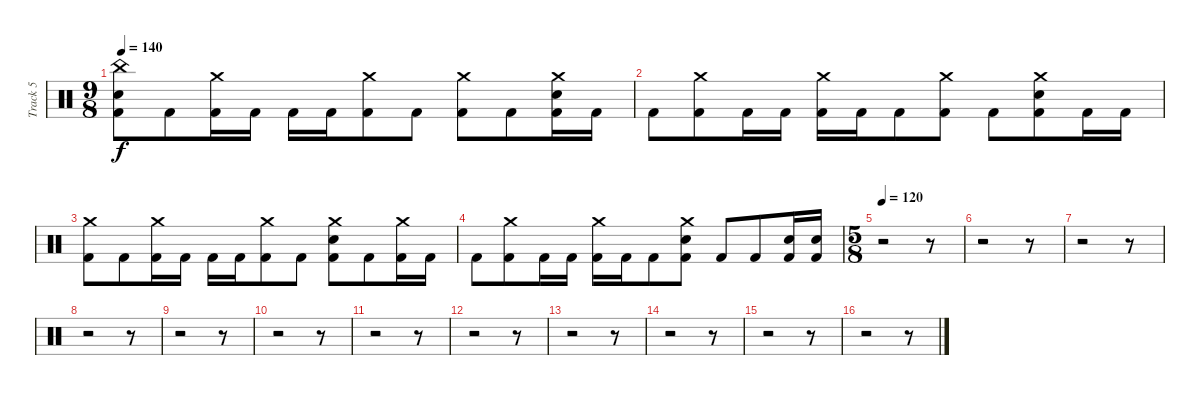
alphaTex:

\track ("Track 5" "Track 5") {instrument percussion}
\staff {score}
\articulation defaults
\ts (9 8)
\tempo 140
\clef neutral
\ks c
("China (hit)" "Electric Snare (hit)" "Kick (hit) 2").8{dy f} "Kick (hit) 2".8 ("Crash medium (hit)" "Kick (hit) 2").16 "Kick (hit) 2".16 "Kick (hit) 2".16 "Kick (hit) 2".16 ("Crash medium (hit)" "Kick (hit) 2").8 "Kick (hit) 2".8 ("Crash medium (hit)" "Kick (hit) 2").8 "Kick (hit) 2".8 ("Crash medium (hit)" "Electric Snare (hit)" "Kick (hit) 2").16 "Kick (hit) 2".16 |
"Kick (hit) 2".8 ("Crash medium (hit)" "Kick (hit) 2").8 "Kick (hit) 2".16 "Kick (hit) 2".16 ("Crash medium (hit)" "Kick (hit) 2").16 "Kick (hit) 2".16 "Kick (hit) 2".8 ("Crash medium (hit)" "Kick (hit) 2").8 "Kick (hit) 2".8 ("Crash medium (hit)" "Electric Snare (hit)" "Kick (hit) 2").8 "Kick (hit) 2".16 "Kick (hit) 2".16 |
("Crash medium (hit)" "Kick (hit) 2").8 "Kick (hit) 2".8 ("Crash medium (hit)" "Kick (hit) 2").16 "Kick (hit) 2".16 "Kick (hit) 2".16 "Kick (hit) 2".16 ("Crash medium (hit)" "Kick (hit) 2").8 "Kick (hit) 2".8 ("Crash medium (hit)" "Electric Snare (hit)" "Kick (hit) 2").8 "Kick (hit) 2".8 ("Crash medium (hit)" "Kick (hit) 2").16 "Kick (hit) 2".16 |
"Kick (hit) 2".8 ("Crash medium (hit)" "Kick (hit) 2").8 "Kick (hit) 2".16 "Kick (hit) 2".16 ("Crash medium (hit)" "Kick (hit) 2").16 "Kick (hit) 2".16 "Kick (hit) 2".8 ("Crash medium (hit)" "Electric Snare (hit)" "Kick (hit) 2").8 "Kick (hit) 2".8 "Kick (hit) 2".8 ("Electric Snare (hit)" "Kick (hit) 2").16 ("Electric Snare (hit)" "Kick (hit) 2").16 |
\ts (5 8)
\tempo 120
r.2 r.8 |
r.2 r.8 |
r.2 r.8 |
r.2 r.8 |
r.2 r.8 |
r.2 r.8 |
r.2 r.8 |
r.2 r.8 |
r.2 r.8 |
r.2 r.8 |
r.2 r.8 |
r.2 r.8
